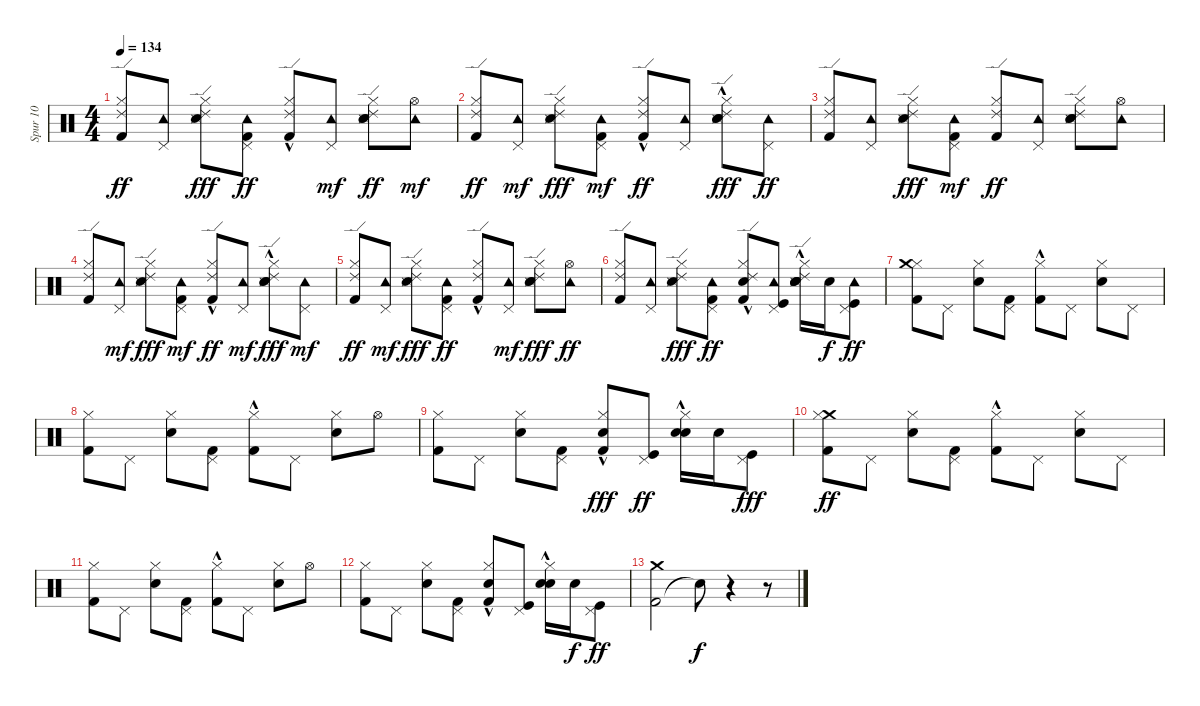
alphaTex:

\track ("Spur 10" "Spur 10") {instrument percussion}
\staff {score}
\articulation defaults
\ts (4 4)
\tempo 134
\clef neutral
\ks c
("Kick (hit) 2" "Hi-Hat (closed)" "Ride (edge) 2").8{dy ff} ("Pedal Hi-Hat (hit)" "Tambourine (hit)").8 ("Snare (side stick) 3" "Hi-Hat (closed)" "Ride (edge) 2" "Electric Snare (hit)").8{dy fff} ("Kick (hit) 2" "Pedal Hi-Hat (hit)" "Tambourine (hit)").8{dy ff} ("Kick (hit) 2"{hac} "Hi-Hat (closed)" "Ride (edge) 2").8 ("Pedal Hi-Hat (hit)" "Tambourine (hit)").8{dy mf} ("Snare (side stick) 3" "Snare (hit) 2" "Hi-Hat (closed)" "Ride (edge) 2" "Electric Snare (hit)").8{dy ff} ("Hi-Hat (open)" "Tambourine (hit)").8{dy mf} |
("Kick (hit) 2" "Hi-Hat (closed)" "Ride (edge) 2").8{dy ff} ("Pedal Hi-Hat (hit)" "Tambourine (hit)").8{dy mf} ("Snare (side stick) 3" "Hi-Hat (closed)" "Ride (edge) 2" "Electric Snare (hit)").8{dy fff} ("Kick (hit) 2" "Pedal Hi-Hat (hit)" "Tambourine (hit)").8{dy mf} ("Kick (hit) 2"{hac} "Hi-Hat (closed)" "Ride (edge) 2").8{dy ff} ("Pedal Hi-Hat (hit)" "Tambourine (hit)").8 ("Snare (side stick) 3" "Snare (hit) 2"{hac} "Hi-Hat (closed)"{hac} "Ride (edge) 2" "Electric Snare (hit)").8{dy fff} ("Pedal Hi-Hat (hit)" "Tambourine (hit)").8{dy ff} |
("Kick (hit) 2" "Hi-Hat (closed)" "Ride (edge) 2").8 ("Pedal Hi-Hat (hit)" "Tambourine (hit)").8 ("Snare (side stick) 3" "Hi-Hat (closed)" "Ride (edge) 2" "Electric Snare (hit)").8{dy fff} ("Kick (hit) 2" "Pedal Hi-Hat (hit)" "Tambourine (hit)").8{dy mf} ("Kick (hit) 2" "Hi-Hat (closed)" "Ride (edge) 2").8{dy ff} ("Pedal Hi-Hat (hit)" "Tambourine (hit)").8 ("Snare (side stick) 3" "Snare (hit) 2" "Hi-Hat (closed)" "Ride (edge) 2" "Electric Snare (hit)").8 ("Hi-Hat (open)" "Tambourine (hit)").8 |
("Kick (hit) 2" "Hi-Hat (closed)" "Ride (edge) 2").8 ("Pedal Hi-Hat (hit)" "Tambourine (hit)").8{dy mf} ("Snare (side stick) 3" "Hi-Hat (closed)" "Ride (edge) 2" "Electric Snare (hit)").8{dy fff} ("Kick (hit) 2" "Pedal Hi-Hat (hit)" "Tambourine (hit)").8{dy mf} ("Kick (hit) 2"{hac} "Hi-Hat (closed)" "Ride (edge) 2").8{dy ff} ("Pedal Hi-Hat (hit)" "Tambourine (hit)").8{dy mf} ("Snare (side stick) 3" "Snare (hit) 2"{hac} "Hi-Hat (closed)" "Ride (edge) 2" "Electric Snare (hit)").8{dy fff} ("Pedal Hi-Hat (hit)" "Tambourine (hit)").8{dy mf} |
("Kick (hit) 2" "Hi-Hat (closed)" "Ride (edge) 2").8{dy ff} ("Pedal Hi-Hat (hit)" "Tambourine (hit)").8{dy mf} ("Snare (side stick) 3" "Hi-Hat (closed)" "Ride (edge) 2" "Electric Snare (hit)").8{dy fff} ("Kick (hit) 2" "Pedal Hi-Hat (hit)" "Tambourine (hit)").8{dy ff} ("Kick (hit) 2"{hac} "Hi-Hat (closed)" "Ride (edge) 2").8 ("Pedal Hi-Hat (hit)" "Tambourine (hit)").8{dy mf} ("Snare (side stick) 3" "Snare (hit) 2" "Hi-Hat (closed)" "Ride (edge) 2" "Electric Snare (hit)").8{dy fff} ("Hi-Hat (open)" "Tambourine (hit)").8{dy ff} |
("Kick (hit) 2" "Hi-Hat (closed)" "Ride (edge) 2").8 ("Pedal Hi-Hat (hit)" "Tambourine (hit)").8 ("Snare (side stick) 3" "Hi-Hat (closed)" "Ride (edge) 2" "Electric Snare (hit)").8{dy fff} ("Kick (hit) 2" "Pedal Hi-Hat (hit)" "Tambourine (hit)").8{dy ff} ("Kick (hit) 2"{hac} "Hi-Hat (closed)" "Ride (edge) 2" "Electric Snare (hit)").8 ("Pedal Hi-Hat (hit)" "Tambourine (hit)" "Kick (hit)").8 ("Snare (side stick) 3" "Snare (hit) 2"{hac} "Hi-Hat (closed)"{hac} "Ride (edge) 2" "Electric Snare (hit)" "Electric Snare (hit)").16 "Electric Snare (hit)".16{dy f} ("Pedal Hi-Hat (hit)" "Tambourine (hit)" "Kick (hit)").8{dy ff} |
("Kick (hit) 2" "Hi-Hat (closed)" "Crash medium (hit)").8 "Pedal Hi-Hat (hit)".8 ("Electric Snare (hit)" "Hi-Hat (closed)").8 ("Kick (hit) 2" "Pedal Hi-Hat (hit)").8 ("Kick (hit) 2"{hac} "Hi-Hat (closed)").8 "Pedal Hi-Hat (hit)".8 ("Electric Snare (hit)" "Hi-Hat (closed)").8 "Pedal Hi-Hat (hit)".8 |
("Kick (hit) 2" "Hi-Hat (closed)").8 "Pedal Hi-Hat (hit)".8 ("Electric Snare (hit)" "Hi-Hat (closed)").8 ("Kick (hit) 2" "Pedal Hi-Hat (hit)").8 ("Kick (hit) 2"{hac} "Hi-Hat (closed)").8 "Pedal Hi-Hat (hit)".8 ("Electric Snare (hit)" "Hi-Hat (closed)").8 "Hi-Hat (open)".8 |
("Kick (hit) 2" "Hi-Hat (closed)").8 "Pedal Hi-Hat (hit)".8 ("Electric Snare (hit)" "Hi-Hat (closed)").8 ("Kick (hit) 2" "Pedal Hi-Hat (hit)").8 ("Kick (hit) 2"{hac} "Hi-Hat (closed)" "Electric Snare (hit)").8{dy fff} ("Pedal Hi-Hat (hit)" "Kick (hit)").8{dy ff} ("Electric Snare (hit)" "Hi-Hat (closed)"{hac} "Electric Snare (hit)").16 "Electric Snare (hit)".16 ("Pedal Hi-Hat (hit)" "Kick (hit)").8{dy fff} |
("Crash medium (hit)" "Kick (hit) 2" "Hi-Hat (closed)").8{dy ff} "Pedal Hi-Hat (hit)".8 ("Electric Snare (hit)" "Hi-Hat (closed)").8 ("Kick (hit) 2" "Pedal Hi-Hat (hit)").8 ("Kick (hit) 2"{hac} "Hi-Hat (closed)").8 "Pedal Hi-Hat (hit)".8 ("Electric Snare (hit)" "Hi-Hat (closed)").8 "Pedal Hi-Hat (hit)".8 |
("Kick (hit) 2" "Hi-Hat (closed)").8 "Pedal Hi-Hat (hit)".8 ("Electric Snare (hit)" "Hi-Hat (closed)").8 ("Kick (hit) 2" "Pedal Hi-Hat (hit)").8 ("Kick (hit) 2"{hac} "Hi-Hat (closed)").8 "Pedal Hi-Hat (hit)".8 ("Electric Snare (hit)" "Hi-Hat (closed)").8 "Hi-Hat (open)".8 |
("Kick (hit) 2" "Hi-Hat (closed)").8 "Pedal Hi-Hat (hit)".8 ("Electric Snare (hit)" "Hi-Hat (closed)").8 ("Kick (hit) 2" "Pedal Hi-Hat (hit)").8 ("Electric Snare (hit)" "Kick (hit) 2"{hac} "Hi-Hat (closed)").8 ("Kick (hit)" "Pedal Hi-Hat (hit)").8 ("Electric Snare (hit)" "Electric Snare (hit)" "Hi-Hat (closed)"{hac}).16 "Electric Snare (hit)".16{dy f} ("Kick (hit)" "Pedal Hi-Hat (hit)").8{dy ff} |
("Kick (hit) 2" "Crash medium (hit)").2 "Snare (hit)"{t}.8{dy f} r.4 r.8
